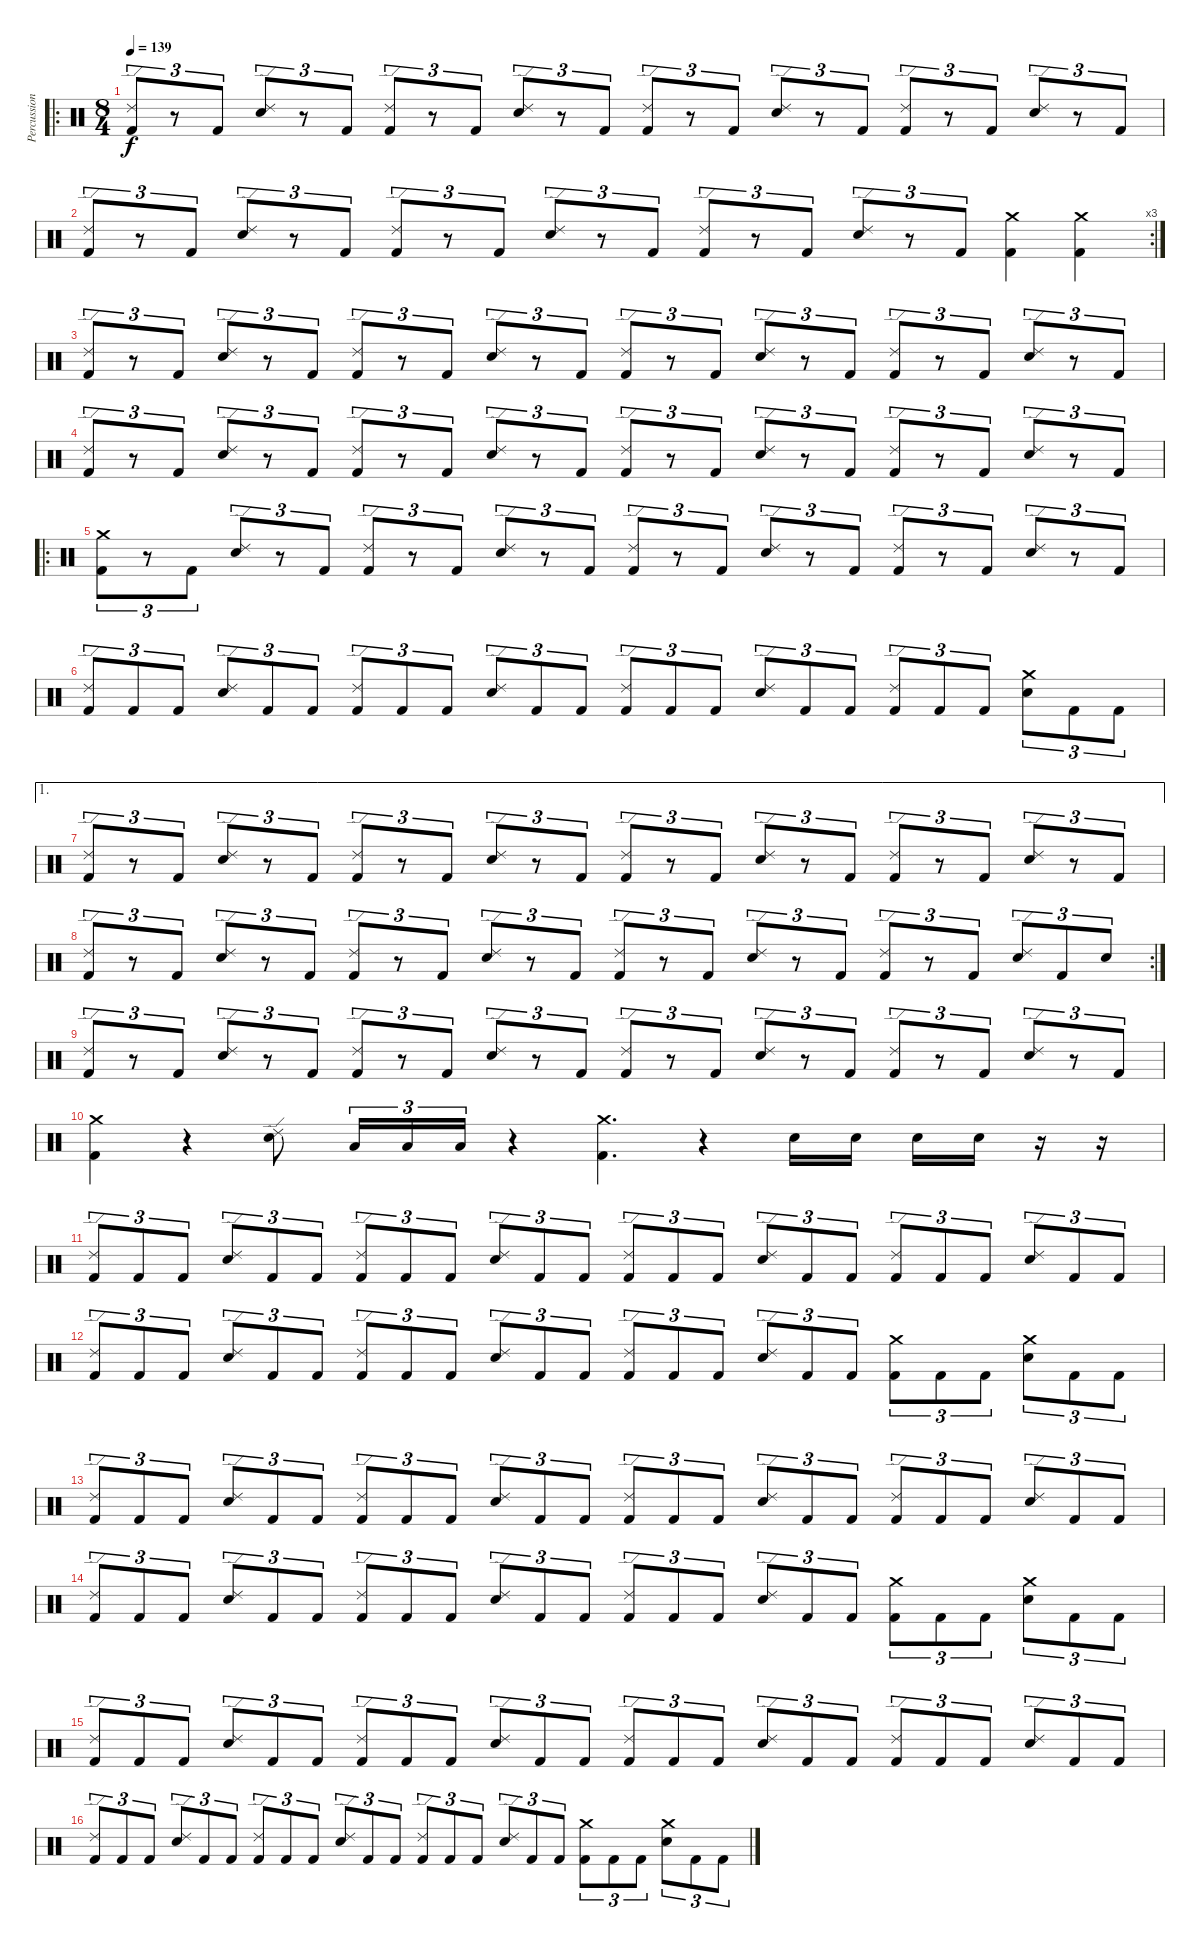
\track ("Percussion" "Percussion") {instrument percussion}
\staff {score}
\articulation defaults
\ro
\ts (8 4)
\tempo 139
\clef neutral
\ks c
("Kick (hit) 2" "Ride (edge) 2").8{tu (3 2) dy f} r.8{tu (3 2)} "Kick (hit) 2".8{tu (3 2)} ("Snare (hit) 2" "Ride (edge) 2").8{tu (3 2)} r.8{tu (3 2)} "Kick (hit) 2".8{tu (3 2)} ("Kick (hit) 2" "Ride (edge) 2").8{tu (3 2)} r.8{tu (3 2)} "Kick (hit) 2".8{tu (3 2)} ("Snare (hit) 2" "Ride (edge) 2").8{tu (3 2)} r.8{tu (3 2)} "Kick (hit) 2".8{tu (3 2)} ("Kick (hit) 2" "Ride (edge) 2").8{tu (3 2)} r.8{tu (3 2)} "Kick (hit) 2".8{tu (3 2)} ("Snare (hit) 2" "Ride (edge) 2").8{tu (3 2)} r.8{tu (3 2)} "Kick (hit) 2".8{tu (3 2)} ("Kick (hit) 2" "Ride (edge) 2").8{tu (3 2)} r.8{tu (3 2)} "Kick (hit) 2".8{tu (3 2)} ("Snare (hit) 2" "Ride (edge) 2").8{tu (3 2)} r.8{tu (3 2)} "Kick (hit) 2".8{tu (3 2)} |
\rc 3
("Kick (hit) 2" "Ride (edge) 2").8{tu (3 2)} r.8{tu (3 2)} "Kick (hit) 2".8{tu (3 2)} ("Snare (hit) 2" "Ride (edge) 2").8{tu (3 2)} r.8{tu (3 2)} "Kick (hit) 2".8{tu (3 2)} ("Kick (hit) 2" "Ride (edge) 2").8{tu (3 2)} r.8{tu (3 2)} "Kick (hit) 2".8{tu (3 2)} ("Snare (hit) 2" "Ride (edge) 2").8{tu (3 2)} r.8{tu (3 2)} "Kick (hit) 2".8{tu (3 2)} ("Kick (hit) 2" "Ride (edge) 2").8{tu (3 2)} r.8{tu (3 2)} "Kick (hit) 2".8{tu (3 2)} ("Snare (hit) 2" "Ride (edge) 2").8{tu (3 2)} r.8{tu (3 2)} "Kick (hit) 2".8{tu (3 2)} ("Kick (hit) 2" "Crash medium (hit)").4 ("Kick (hit) 2" "Crash medium (hit)").4 |
("Kick (hit) 2" "Ride (edge) 2").8{tu (3 2)} r.8{tu (3 2)} "Kick (hit) 2".8{tu (3 2)} ("Snare (hit) 2" "Ride (edge) 2").8{tu (3 2)} r.8{tu (3 2)} "Kick (hit) 2".8{tu (3 2)} ("Kick (hit) 2" "Ride (edge) 2").8{tu (3 2)} r.8{tu (3 2)} "Kick (hit) 2".8{tu (3 2)} ("Snare (hit) 2" "Ride (edge) 2").8{tu (3 2)} r.8{tu (3 2)} "Kick (hit) 2".8{tu (3 2)} ("Kick (hit) 2" "Ride (edge) 2").8{tu (3 2)} r.8{tu (3 2)} "Kick (hit) 2".8{tu (3 2)} ("Snare (hit) 2" "Ride (edge) 2").8{tu (3 2)} r.8{tu (3 2)} "Kick (hit) 2".8{tu (3 2)} ("Kick (hit) 2" "Ride (edge) 2").8{tu (3 2)} r.8{tu (3 2)} "Kick (hit) 2".8{tu (3 2)} ("Snare (hit) 2" "Ride (edge) 2").8{tu (3 2)} r.8{tu (3 2)} "Kick (hit) 2".8{tu (3 2)} |
("Kick (hit) 2" "Ride (edge) 2").8{tu (3 2)} r.8{tu (3 2)} "Kick (hit) 2".8{tu (3 2)} ("Snare (hit) 2" "Ride (edge) 2").8{tu (3 2)} r.8{tu (3 2)} "Kick (hit) 2".8{tu (3 2)} ("Kick (hit) 2" "Ride (edge) 2").8{tu (3 2)} r.8{tu (3 2)} "Kick (hit) 2".8{tu (3 2)} ("Snare (hit) 2" "Ride (edge) 2").8{tu (3 2)} r.8{tu (3 2)} "Kick (hit) 2".8{tu (3 2)} ("Kick (hit) 2" "Ride (edge) 2").8{tu (3 2)} r.8{tu (3 2)} "Kick (hit) 2".8{tu (3 2)} ("Snare (hit) 2" "Ride (edge) 2").8{tu (3 2)} r.8{tu (3 2)} "Kick (hit) 2".8{tu (3 2)} ("Kick (hit) 2" "Ride (edge) 2").8{tu (3 2)} r.8{tu (3 2)} "Kick (hit) 2".8{tu (3 2)} ("Snare (hit) 2" "Ride (edge) 2").8{tu (3 2)} r.8{tu (3 2)} "Kick (hit) 2".8{tu (3 2)} |
\ro
("Kick (hit) 2" "Crash medium (hit)").8{tu (3 2)} r.8{tu (3 2)} "Kick (hit) 2".8{tu (3 2)} ("Snare (hit) 2" "Ride (edge) 2").8{tu (3 2)} r.8{tu (3 2)} "Kick (hit) 2".8{tu (3 2)} ("Kick (hit) 2" "Ride (edge) 2").8{tu (3 2)} r.8{tu (3 2)} "Kick (hit) 2".8{tu (3 2)} ("Snare (hit) 2" "Ride (edge) 2").8{tu (3 2)} r.8{tu (3 2)} "Kick (hit) 2".8{tu (3 2)} ("Kick (hit) 2" "Ride (edge) 2").8{tu (3 2)} r.8{tu (3 2)} "Kick (hit) 2".8{tu (3 2)} ("Snare (hit) 2" "Ride (edge) 2").8{tu (3 2)} r.8{tu (3 2)} "Kick (hit) 2".8{tu (3 2)} ("Kick (hit) 2" "Ride (edge) 2").8{tu (3 2)} r.8{tu (3 2)} "Kick (hit) 2".8{tu (3 2)} ("Snare (hit) 2" "Ride (edge) 2").8{tu (3 2)} r.8{tu (3 2)} "Kick (hit) 2".8{tu (3 2)} |
("Kick (hit) 2" "Ride (edge) 2").8{tu (3 2)} "Kick (hit) 2".8{tu (3 2)} "Kick (hit) 2".8{tu (3 2)} ("Snare (hit) 2" "Ride (edge) 2").8{tu (3 2)} "Kick (hit) 2".8{tu (3 2)} "Kick (hit) 2".8{tu (3 2)} ("Kick (hit) 2" "Ride (edge) 2").8{tu (3 2)} "Kick (hit) 2".8{tu (3 2)} "Kick (hit) 2".8{tu (3 2)} ("Snare (hit) 2" "Ride (edge) 2").8{tu (3 2)} "Kick (hit) 2".8{tu (3 2)} "Kick (hit) 2".8{tu (3 2)} ("Kick (hit) 2" "Ride (edge) 2").8{tu (3 2)} "Kick (hit) 2".8{tu (3 2)} "Kick (hit) 2".8{tu (3 2)} ("Snare (hit) 2" "Ride (edge) 2").8{tu (3 2)} "Kick (hit) 2".8{tu (3 2)} "Kick (hit) 2".8{tu (3 2)} ("Kick (hit) 2" "Ride (edge) 2").8{tu (3 2)} "Kick (hit) 2".8{tu (3 2)} "Kick (hit) 2".8{tu (3 2)} ("Snare (hit) 2" "Crash medium (hit)").8{tu (3 2)} "Kick (hit) 2".8{tu (3 2)} "Kick (hit) 2".8{tu (3 2)} |
\ae 1
("Kick (hit) 2" "Ride (edge) 2").8{tu (3 2)} r.8{tu (3 2)} "Kick (hit) 2".8{tu (3 2)} ("Snare (hit) 2" "Ride (edge) 2").8{tu (3 2)} r.8{tu (3 2)} "Kick (hit) 2".8{tu (3 2)} ("Kick (hit) 2" "Ride (edge) 2").8{tu (3 2)} r.8{tu (3 2)} "Kick (hit) 2".8{tu (3 2)} ("Snare (hit) 2" "Ride (edge) 2").8{tu (3 2)} r.8{tu (3 2)} "Kick (hit) 2".8{tu (3 2)} ("Kick (hit) 2" "Ride (edge) 2").8{tu (3 2)} r.8{tu (3 2)} "Kick (hit) 2".8{tu (3 2)} ("Snare (hit) 2" "Ride (edge) 2").8{tu (3 2)} r.8{tu (3 2)} "Kick (hit) 2".8{tu (3 2)} ("Kick (hit) 2" "Ride (edge) 2").8{tu (3 2)} r.8{tu (3 2)} "Kick (hit) 2".8{tu (3 2)} ("Snare (hit) 2" "Ride (edge) 2").8{tu (3 2)} r.8{tu (3 2)} "Kick (hit) 2".8{tu (3 2)} |
\rc 2
("Kick (hit) 2" "Ride (edge) 2").8{tu (3 2)} r.8{tu (3 2)} "Kick (hit) 2".8{tu (3 2)} ("Snare (hit) 2" "Ride (edge) 2").8{tu (3 2)} r.8{tu (3 2)} "Kick (hit) 2".8{tu (3 2)} ("Kick (hit) 2" "Ride (edge) 2").8{tu (3 2)} r.8{tu (3 2)} "Kick (hit) 2".8{tu (3 2)} ("Snare (hit) 2" "Ride (edge) 2").8{tu (3 2)} r.8{tu (3 2)} "Kick (hit) 2".8{tu (3 2)} ("Kick (hit) 2" "Ride (edge) 2").8{tu (3 2)} r.8{tu (3 2)} "Kick (hit) 2".8{tu (3 2)} ("Snare (hit) 2" "Ride (edge) 2").8{tu (3 2)} r.8{tu (3 2)} "Kick (hit) 2".8{tu (3 2)} ("Kick (hit) 2" "Ride (edge) 2").8{tu (3 2)} r.8{tu (3 2)} "Kick (hit) 2".8{tu (3 2)} ("Snare (hit) 2" "Ride (edge) 2").8{tu (3 2)} "Kick (hit) 2".8{tu (3 2)} "Snare (hit) 2".8{tu (3 2)} |
("Kick (hit) 2" "Ride (edge) 2").8{tu (3 2)} r.8{tu (3 2)} "Kick (hit) 2".8{tu (3 2)} ("Snare (hit) 2" "Ride (edge) 2").8{tu (3 2)} r.8{tu (3 2)} "Kick (hit) 2".8{tu (3 2)} ("Kick (hit) 2" "Ride (edge) 2").8{tu (3 2)} r.8{tu (3 2)} "Kick (hit) 2".8{tu (3 2)} ("Snare (hit) 2" "Ride (edge) 2").8{tu (3 2)} r.8{tu (3 2)} "Kick (hit) 2".8{tu (3 2)} ("Kick (hit) 2" "Ride (edge) 2").8{tu (3 2)} r.8{tu (3 2)} "Kick (hit) 2".8{tu (3 2)} ("Snare (hit) 2" "Ride (edge) 2").8{tu (3 2)} r.8{tu (3 2)} "Kick (hit) 2".8{tu (3 2)} ("Kick (hit) 2" "Ride (edge) 2").8{tu (3 2)} r.8{tu (3 2)} "Kick (hit) 2".8{tu (3 2)} ("Snare (hit) 2" "Ride (edge) 2").8{tu (3 2)} r.8{tu (3 2)} "Kick (hit) 2".8{tu (3 2)} |
("Kick (hit) 2" "Crash medium (hit)").4 r.4 ("Snare (hit) 2" "Ride (edge) 2").8 "Low Tom (hit)".16{tu (3 2)} "Low Tom (hit)".16{tu (3 2)} "Low Tom (hit)".16{tu (3 2)} r.4 ("Kick (hit) 2" "Crash medium (hit)").4{d} r.4 "Snare (hit) 2".16 "Snare (hit) 2".16 "Snare (hit) 2".16 "Snare (hit) 2".16 r.16 r.16 |
("Kick (hit) 2" "Ride (edge) 2").8{tu (3 2)} "Kick (hit) 2".8{tu (3 2)} "Kick (hit) 2".8{tu (3 2)} ("Snare (hit) 2" "Ride (edge) 2").8{tu (3 2)} "Kick (hit) 2".8{tu (3 2)} "Kick (hit) 2".8{tu (3 2)} ("Kick (hit) 2" "Ride (edge) 2").8{tu (3 2)} "Kick (hit) 2".8{tu (3 2)} "Kick (hit) 2".8{tu (3 2)} ("Snare (hit) 2" "Ride (edge) 2").8{tu (3 2)} "Kick (hit) 2".8{tu (3 2)} "Kick (hit) 2".8{tu (3 2)} ("Kick (hit) 2" "Ride (edge) 2").8{tu (3 2)} "Kick (hit) 2".8{tu (3 2)} "Kick (hit) 2".8{tu (3 2)} ("Snare (hit) 2" "Ride (edge) 2").8{tu (3 2)} "Kick (hit) 2".8{tu (3 2)} "Kick (hit) 2".8{tu (3 2)} ("Kick (hit) 2" "Ride (edge) 2").8{tu (3 2)} "Kick (hit) 2".8{tu (3 2)} "Kick (hit) 2".8{tu (3 2)} ("Snare (hit) 2" "Ride (edge) 2").8{tu (3 2)} "Kick (hit) 2".8{tu (3 2)} "Kick (hit) 2".8{tu (3 2)} |
("Kick (hit) 2" "Ride (edge) 2").8{tu (3 2)} "Kick (hit) 2".8{tu (3 2)} "Kick (hit) 2".8{tu (3 2)} ("Snare (hit) 2" "Ride (edge) 2").8{tu (3 2)} "Kick (hit) 2".8{tu (3 2)} "Kick (hit) 2".8{tu (3 2)} ("Kick (hit) 2" "Ride (edge) 2").8{tu (3 2)} "Kick (hit) 2".8{tu (3 2)} "Kick (hit) 2".8{tu (3 2)} ("Snare (hit) 2" "Ride (edge) 2").8{tu (3 2)} "Kick (hit) 2".8{tu (3 2)} "Kick (hit) 2".8{tu (3 2)} ("Kick (hit) 2" "Ride (edge) 2").8{tu (3 2)} "Kick (hit) 2".8{tu (3 2)} "Kick (hit) 2".8{tu (3 2)} ("Snare (hit) 2" "Ride (edge) 2").8{tu (3 2)} "Kick (hit) 2".8{tu (3 2)} "Kick (hit) 2".8{tu (3 2)} ("Kick (hit) 2" "Crash medium (hit)").8{tu (3 2)} "Kick (hit) 2".8{tu (3 2)} "Kick (hit) 2".8{tu (3 2)} ("Snare (hit) 2" "Crash medium (hit)").8{tu (3 2)} "Kick (hit) 2".8{tu (3 2)} "Kick (hit) 2".8{tu (3 2)} |
("Kick (hit) 2" "Ride (edge) 2").8{tu (3 2)} "Kick (hit) 2".8{tu (3 2)} "Kick (hit) 2".8{tu (3 2)} ("Snare (hit) 2" "Ride (edge) 2").8{tu (3 2)} "Kick (hit) 2".8{tu (3 2)} "Kick (hit) 2".8{tu (3 2)} ("Kick (hit) 2" "Ride (edge) 2").8{tu (3 2)} "Kick (hit) 2".8{tu (3 2)} "Kick (hit) 2".8{tu (3 2)} ("Snare (hit) 2" "Ride (edge) 2").8{tu (3 2)} "Kick (hit) 2".8{tu (3 2)} "Kick (hit) 2".8{tu (3 2)} ("Kick (hit) 2" "Ride (edge) 2").8{tu (3 2)} "Kick (hit) 2".8{tu (3 2)} "Kick (hit) 2".8{tu (3 2)} ("Snare (hit) 2" "Ride (edge) 2").8{tu (3 2)} "Kick (hit) 2".8{tu (3 2)} "Kick (hit) 2".8{tu (3 2)} ("Kick (hit) 2" "Ride (edge) 2").8{tu (3 2)} "Kick (hit) 2".8{tu (3 2)} "Kick (hit) 2".8{tu (3 2)} ("Snare (hit) 2" "Ride (edge) 2").8{tu (3 2)} "Kick (hit) 2".8{tu (3 2)} "Kick (hit) 2".8{tu (3 2)} |
("Kick (hit) 2" "Ride (edge) 2").8{tu (3 2)} "Kick (hit) 2".8{tu (3 2)} "Kick (hit) 2".8{tu (3 2)} ("Snare (hit) 2" "Ride (edge) 2").8{tu (3 2)} "Kick (hit) 2".8{tu (3 2)} "Kick (hit) 2".8{tu (3 2)} ("Kick (hit) 2" "Ride (edge) 2").8{tu (3 2)} "Kick (hit) 2".8{tu (3 2)} "Kick (hit) 2".8{tu (3 2)} ("Snare (hit) 2" "Ride (edge) 2").8{tu (3 2)} "Kick (hit) 2".8{tu (3 2)} "Kick (hit) 2".8{tu (3 2)} ("Kick (hit) 2" "Ride (edge) 2").8{tu (3 2)} "Kick (hit) 2".8{tu (3 2)} "Kick (hit) 2".8{tu (3 2)} ("Snare (hit) 2" "Ride (edge) 2").8{tu (3 2)} "Kick (hit) 2".8{tu (3 2)} "Kick (hit) 2".8{tu (3 2)} ("Kick (hit) 2" "Crash medium (hit)").8{tu (3 2)} "Kick (hit) 2".8{tu (3 2)} "Kick (hit) 2".8{tu (3 2)} ("Snare (hit) 2" "Crash medium (hit)").8{tu (3 2)} "Kick (hit) 2".8{tu (3 2)} "Kick (hit) 2".8{tu (3 2)} |
("Kick (hit) 2" "Ride (edge) 2").8{tu (3 2)} "Kick (hit) 2".8{tu (3 2)} "Kick (hit) 2".8{tu (3 2)} ("Snare (hit) 2" "Ride (edge) 2").8{tu (3 2)} "Kick (hit) 2".8{tu (3 2)} "Kick (hit) 2".8{tu (3 2)} ("Kick (hit) 2" "Ride (edge) 2").8{tu (3 2)} "Kick (hit) 2".8{tu (3 2)} "Kick (hit) 2".8{tu (3 2)} ("Snare (hit) 2" "Ride (edge) 2").8{tu (3 2)} "Kick (hit) 2".8{tu (3 2)} "Kick (hit) 2".8{tu (3 2)} ("Kick (hit) 2" "Ride (edge) 2").8{tu (3 2)} "Kick (hit) 2".8{tu (3 2)} "Kick (hit) 2".8{tu (3 2)} ("Snare (hit) 2" "Ride (edge) 2").8{tu (3 2)} "Kick (hit) 2".8{tu (3 2)} "Kick (hit) 2".8{tu (3 2)} ("Kick (hit) 2" "Ride (edge) 2").8{tu (3 2)} "Kick (hit) 2".8{tu (3 2)} "Kick (hit) 2".8{tu (3 2)} ("Snare (hit) 2" "Ride (edge) 2").8{tu (3 2)} "Kick (hit) 2".8{tu (3 2)} "Kick (hit) 2".8{tu (3 2)} |
("Kick (hit) 2" "Ride (edge) 2").8{tu (3 2)} "Kick (hit) 2".8{tu (3 2)} "Kick (hit) 2".8{tu (3 2)} ("Snare (hit) 2" "Ride (edge) 2").8{tu (3 2)} "Kick (hit) 2".8{tu (3 2)} "Kick (hit) 2".8{tu (3 2)} ("Kick (hit) 2" "Ride (edge) 2").8{tu (3 2)} "Kick (hit) 2".8{tu (3 2)} "Kick (hit) 2".8{tu (3 2)} ("Snare (hit) 2" "Ride (edge) 2").8{tu (3 2)} "Kick (hit) 2".8{tu (3 2)} "Kick (hit) 2".8{tu (3 2)} ("Kick (hit) 2" "Ride (edge) 2").8{tu (3 2)} "Kick (hit) 2".8{tu (3 2)} "Kick (hit) 2".8{tu (3 2)} ("Snare (hit) 2" "Ride (edge) 2").8{tu (3 2)} "Kick (hit) 2".8{tu (3 2)} "Kick (hit) 2".8{tu (3 2)} ("Kick (hit) 2" "Crash medium (hit)").8{tu (3 2)} "Kick (hit) 2".8{tu (3 2)} "Kick (hit) 2".8{tu (3 2)} ("Snare (hit) 2" "Crash medium (hit)").8{tu (3 2)} "Kick (hit) 2".8{tu (3 2)} "Kick (hit) 2".8{tu (3 2)}
